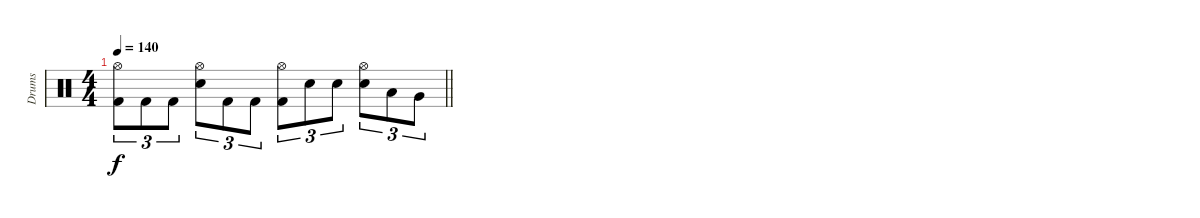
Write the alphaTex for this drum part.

\track ("Drums" "Drums") {instrument percussion}
\staff {score}
\articulation defaults
\ts (4 4)
\tempo 140
\clef neutral
\barLineRight lightlight
\ks c
("Kick (hit) 2" "Hi-Hat (open)").8{tu (3 2) dy f} "Kick (hit) 2".8{tu (3 2)} "Kick (hit) 2".8{tu (3 2)} ("Snare (hit) 2" "Hi-Hat (open)").8{tu (3 2)} "Kick (hit) 2".8{tu (3 2)} "Kick (hit) 2".8{tu (3 2)} ("Kick (hit) 2" "Hi-Hat (open)").8{tu (3 2)} "Snare (hit) 2".8{tu (3 2)} "Snare (hit) 2".8{tu (3 2)} ("Snare (hit) 2" "Hi-Hat (open)").8{tu (3 2)} "Low Tom (hit)".8{tu (3 2)} "Very Low Tom (hit)".8{tu (3 2)}
